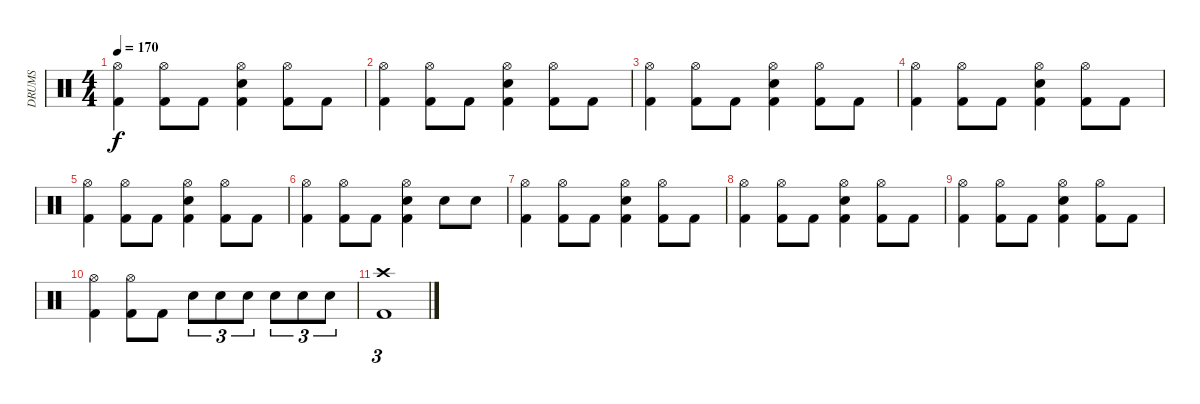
\track ("DRUMS" "DRUMS") {instrument percussion}
\staff {score}
\articulation defaults
\ts (4 4)
\tempo 170
\clef neutral
\ks c
("Hi-Hat (open)" "Kick (hit) 2").4{dy f} ("Hi-Hat (open)" "Kick (hit) 2").8 "Kick (hit) 2".8 ("Hi-Hat (open)" "Snare (hit) 2" "Kick (hit) 2").4 ("Hi-Hat (open)" "Kick (hit) 2").8 "Kick (hit) 2".8 |
("Hi-Hat (open)" "Kick (hit) 2").4 ("Hi-Hat (open)" "Kick (hit) 2").8 "Kick (hit) 2".8 ("Hi-Hat (open)" "Snare (hit) 2" "Kick (hit) 2").4 ("Hi-Hat (open)" "Kick (hit) 2").8 "Kick (hit) 2".8 |
("Hi-Hat (open)" "Kick (hit) 2").4 ("Hi-Hat (open)" "Kick (hit) 2").8 "Kick (hit) 2".8 ("Hi-Hat (open)" "Snare (hit) 2" "Kick (hit) 2").4 ("Hi-Hat (open)" "Kick (hit) 2").8 "Kick (hit) 2".8 |
("Hi-Hat (open)" "Kick (hit) 2").4 ("Hi-Hat (open)" "Kick (hit) 2").8 "Kick (hit) 2".8 ("Hi-Hat (open)" "Snare (hit) 2" "Kick (hit) 2").4 ("Hi-Hat (open)" "Kick (hit) 2").8 "Kick (hit) 2".8 |
("Hi-Hat (open)" "Kick (hit) 2").4 ("Hi-Hat (open)" "Kick (hit) 2").8 "Kick (hit) 2".8 ("Hi-Hat (open)" "Snare (hit) 2" "Kick (hit) 2").4 ("Hi-Hat (open)" "Kick (hit) 2").8 "Kick (hit) 2".8 |
("Hi-Hat (open)" "Kick (hit) 2").4 ("Hi-Hat (open)" "Kick (hit) 2").8 "Kick (hit) 2".8 ("Kick (hit) 2" "Snare (hit) 2" "Hi-Hat (open)").4 "Snare (hit) 2".8 "Snare (hit) 2".8 |
("Hi-Hat (open)" "Kick (hit) 2").4 ("Hi-Hat (open)" "Kick (hit) 2").8 "Kick (hit) 2".8 ("Hi-Hat (open)" "Snare (hit) 2" "Kick (hit) 2").4 ("Hi-Hat (open)" "Kick (hit) 2").8 "Kick (hit) 2".8 |
("Hi-Hat (open)" "Kick (hit) 2").4 ("Hi-Hat (open)" "Kick (hit) 2").8 "Kick (hit) 2".8 ("Hi-Hat (open)" "Snare (hit) 2" "Kick (hit) 2").4 ("Hi-Hat (open)" "Kick (hit) 2").8 "Kick (hit) 2".8 |
("Hi-Hat (open)" "Kick (hit) 2").4 ("Hi-Hat (open)" "Kick (hit) 2").8 "Kick (hit) 2".8 ("Hi-Hat (open)" "Snare (hit) 2" "Kick (hit) 2").4 ("Hi-Hat (open)" "Kick (hit) 2").8 "Kick (hit) 2".8 |
("Hi-Hat (open)" "Kick (hit) 2").4 ("Hi-Hat (open)" "Kick (hit) 2").8 "Kick (hit) 2".8 "Snare (hit) 2".8{tu (3 2)} "Snare (hit) 2".8{tu (3 2)} "Snare (hit) 2".8{tu (3 2)} "Snare (hit) 2".8{tu (3 2)} "Snare (hit) 2".8{tu (3 2)} "Snare (hit) 2".8{tu (3 2)} |
("Kick (hit) 2" "Crash high (hit)").1{tu (3 2)}
